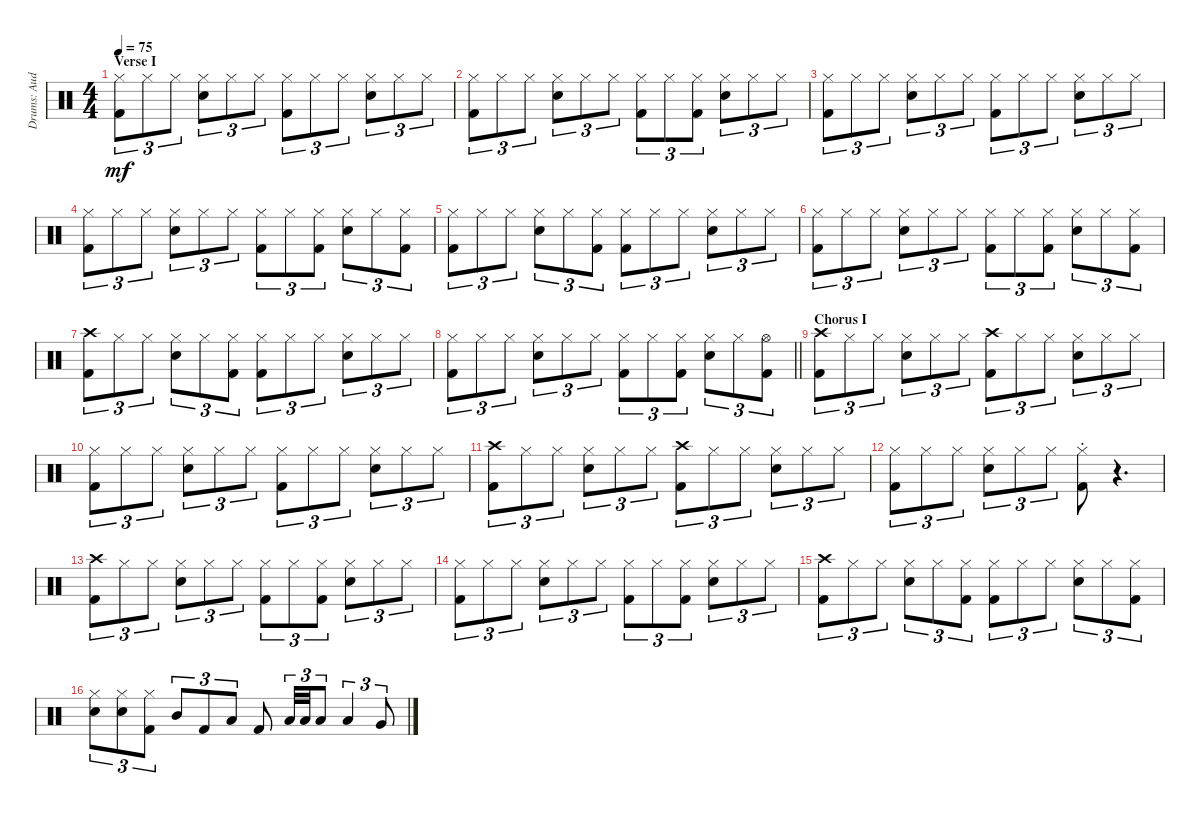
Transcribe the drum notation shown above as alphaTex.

\track ("Drums: Audie" "Drums: Aud") {instrument percussion}
\staff {score}
\articulation defaults
\ts (4 4)
\section ("" "Verse I")
\tempo 75
\clef neutral
\ks c
("Hi-Hat (closed)"{t} "Kick (hit) 2").8{tu (3 2) dy mf} "Hi-Hat (closed)".8{tu (3 2)} "Hi-Hat (closed)".8{tu (3 2)} ("Hi-Hat (closed)" "Electric Snare (hit)").8{tu (3 2)} "Hi-Hat (closed)".8{tu (3 2)} "Hi-Hat (closed)".8{tu (3 2)} ("Hi-Hat (closed)" "Kick (hit) 2").8{tu (3 2)} "Hi-Hat (closed)".8{tu (3 2)} "Hi-Hat (closed)".8{tu (3 2)} ("Hi-Hat (closed)" "Electric Snare (hit)").8{tu (3 2)} "Hi-Hat (closed)".8{tu (3 2)} "Hi-Hat (closed)".8{tu (3 2)} |
("Hi-Hat (closed)" "Kick (hit) 2").8{tu (3 2)} "Hi-Hat (closed)".8{tu (3 2)} "Hi-Hat (closed)".8{tu (3 2)} ("Hi-Hat (closed)" "Electric Snare (hit)").8{tu (3 2)} "Hi-Hat (closed)".8{tu (3 2)} "Hi-Hat (closed)".8{tu (3 2)} ("Hi-Hat (closed)" "Kick (hit) 2").8{tu (3 2)} "Hi-Hat (closed)".8{tu (3 2)} ("Hi-Hat (closed)" "Kick (hit) 2").8{tu (3 2)} ("Hi-Hat (closed)" "Electric Snare (hit)").8{tu (3 2)} "Hi-Hat (closed)".8{tu (3 2)} "Hi-Hat (closed)".8{tu (3 2)} |
("Hi-Hat (closed)" "Kick (hit) 2").8{tu (3 2)} "Hi-Hat (closed)".8{tu (3 2)} "Hi-Hat (closed)".8{tu (3 2)} ("Hi-Hat (closed)" "Electric Snare (hit)").8{tu (3 2)} "Hi-Hat (closed)".8{tu (3 2)} "Hi-Hat (closed)".8{tu (3 2)} ("Hi-Hat (closed)" "Kick (hit) 2").8{tu (3 2)} "Hi-Hat (closed)".8{tu (3 2)} "Hi-Hat (closed)".8{tu (3 2)} ("Hi-Hat (closed)" "Electric Snare (hit)").8{tu (3 2)} "Hi-Hat (closed)".8{tu (3 2)} "Hi-Hat (closed)".8{tu (3 2)} |
("Hi-Hat (closed)" "Kick (hit) 2").8{tu (3 2)} "Hi-Hat (closed)".8{tu (3 2)} "Hi-Hat (closed)".8{tu (3 2)} ("Hi-Hat (closed)" "Electric Snare (hit)").8{tu (3 2)} "Hi-Hat (closed)".8{tu (3 2)} "Hi-Hat (closed)".8{tu (3 2)} ("Hi-Hat (closed)" "Kick (hit) 2").8{tu (3 2)} "Hi-Hat (closed)".8{tu (3 2)} ("Hi-Hat (closed)" "Kick (hit) 2").8{tu (3 2)} ("Hi-Hat (closed)" "Electric Snare (hit)").8{tu (3 2)} "Hi-Hat (closed)".8{tu (3 2)} ("Hi-Hat (closed)" "Kick (hit) 2").8{tu (3 2)} |
("Hi-Hat (closed)" "Kick (hit) 2").8{tu (3 2)} "Hi-Hat (closed)".8{tu (3 2)} "Hi-Hat (closed)".8{tu (3 2)} ("Hi-Hat (closed)" "Electric Snare (hit)").8{tu (3 2)} "Hi-Hat (closed)".8{tu (3 2)} ("Hi-Hat (closed)" "Kick (hit) 2").8{tu (3 2)} ("Hi-Hat (closed)" "Kick (hit) 2").8{tu (3 2)} "Hi-Hat (closed)".8{tu (3 2)} "Hi-Hat (closed)".8{tu (3 2)} ("Hi-Hat (closed)" "Electric Snare (hit)").8{tu (3 2)} "Hi-Hat (closed)".8{tu (3 2)} "Hi-Hat (closed)".8{tu (3 2)} |
("Hi-Hat (closed)" "Kick (hit) 2").8{tu (3 2)} "Hi-Hat (closed)".8{tu (3 2)} "Hi-Hat (closed)".8{tu (3 2)} ("Hi-Hat (closed)" "Electric Snare (hit)").8{tu (3 2)} "Hi-Hat (closed)".8{tu (3 2)} "Hi-Hat (closed)".8{tu (3 2)} ("Hi-Hat (closed)" "Kick (hit) 2").8{tu (3 2)} "Hi-Hat (closed)".8{tu (3 2)} ("Hi-Hat (closed)" "Kick (hit) 2").8{tu (3 2)} ("Hi-Hat (closed)" "Electric Snare (hit)").8{tu (3 2)} "Hi-Hat (closed)".8{tu (3 2)} ("Hi-Hat (closed)" "Kick (hit) 2").8{tu (3 2)} |
("Crash high (hit)" "Kick (hit) 2").8{tu (3 2)} "Hi-Hat (closed)".8{tu (3 2)} "Hi-Hat (closed)".8{tu (3 2)} ("Hi-Hat (closed)" "Electric Snare (hit)").8{tu (3 2)} "Hi-Hat (closed)".8{tu (3 2)} ("Hi-Hat (closed)" "Kick (hit) 2").8{tu (3 2)} ("Hi-Hat (closed)" "Kick (hit) 2").8{tu (3 2)} "Hi-Hat (closed)".8{tu (3 2)} "Hi-Hat (closed)".8{tu (3 2)} ("Hi-Hat (closed)" "Electric Snare (hit)").8{tu (3 2)} "Hi-Hat (closed)".8{tu (3 2)} "Hi-Hat (closed)".8{tu (3 2)} |
\barLineRight lightlight
("Hi-Hat (closed)" "Kick (hit) 2").8{tu (3 2)} "Hi-Hat (closed)".8{tu (3 2)} "Hi-Hat (closed)".8{tu (3 2)} ("Hi-Hat (closed)" "Electric Snare (hit)").8{tu (3 2)} "Hi-Hat (closed)".8{tu (3 2)} "Hi-Hat (closed)".8{tu (3 2)} ("Hi-Hat (closed)" "Kick (hit) 2").8{tu (3 2)} "Hi-Hat (closed)".8{tu (3 2)} ("Hi-Hat (closed)" "Kick (hit) 2").8{tu (3 2)} ("Hi-Hat (closed)" "Electric Snare (hit)").8{tu (3 2)} "Hi-Hat (closed)".8{tu (3 2)} ("Hi-Hat (open)" "Kick (hit) 2").8{tu (3 2)} |
\section ("" "Chorus I")
("Crash high (hit)" "Kick (hit) 2").8{tu (3 2)} "Hi-Hat (closed)".8{tu (3 2)} "Hi-Hat (closed)".8{tu (3 2)} ("Hi-Hat (closed)" "Electric Snare (hit)").8{tu (3 2)} "Hi-Hat (closed)".8{tu (3 2)} "Hi-Hat (closed)".8{tu (3 2)} ("Crash high (hit)" "Kick (hit) 2").8{tu (3 2)} "Hi-Hat (closed)".8{tu (3 2)} "Hi-Hat (closed)".8{tu (3 2)} ("Hi-Hat (closed)" "Electric Snare (hit)").8{tu (3 2)} "Hi-Hat (closed)".8{tu (3 2)} "Hi-Hat (closed)".8{tu (3 2)} |
("Hi-Hat (closed)" "Kick (hit) 2").8{tu (3 2)} "Hi-Hat (closed)".8{tu (3 2)} "Hi-Hat (closed)".8{tu (3 2)} ("Hi-Hat (closed)" "Electric Snare (hit)").8{tu (3 2)} "Hi-Hat (closed)".8{tu (3 2)} "Hi-Hat (closed)".8{tu (3 2)} ("Hi-Hat (closed)" "Kick (hit) 2").8{tu (3 2)} "Hi-Hat (closed)".8{tu (3 2)} "Hi-Hat (closed)".8{tu (3 2)} ("Hi-Hat (closed)" "Electric Snare (hit)").8{tu (3 2)} "Hi-Hat (closed)".8{tu (3 2)} "Hi-Hat (closed)".8{tu (3 2)} |
("Crash high (hit)" "Kick (hit) 2").8{tu (3 2)} "Hi-Hat (closed)".8{tu (3 2)} "Hi-Hat (closed)".8{tu (3 2)} ("Hi-Hat (closed)" "Electric Snare (hit)").8{tu (3 2)} "Hi-Hat (closed)".8{tu (3 2)} "Hi-Hat (closed)".8{tu (3 2)} ("Crash high (hit)" "Kick (hit) 2").8{tu (3 2)} "Hi-Hat (closed)".8{tu (3 2)} "Hi-Hat (closed)".8{tu (3 2)} ("Hi-Hat (closed)" "Electric Snare (hit)").8{tu (3 2)} "Hi-Hat (closed)".8{tu (3 2)} "Hi-Hat (closed)".8{tu (3 2)} |
("Hi-Hat (closed)" "Kick (hit) 2").8{tu (3 2)} "Hi-Hat (closed)".8{tu (3 2)} "Hi-Hat (closed)".8{tu (3 2)} ("Hi-Hat (closed)" "Electric Snare (hit)").8{tu (3 2)} "Hi-Hat (closed)".8{tu (3 2)} "Hi-Hat (closed)".8{tu (3 2)} ("Hi-Hat (closed)"{st} "Kick (hit) 2"{st}).8 r.4{d} |
("Crash high (hit)" "Kick (hit) 2").8{tu (3 2)} "Hi-Hat (closed)".8{tu (3 2)} "Hi-Hat (closed)".8{tu (3 2)} ("Hi-Hat (closed)" "Electric Snare (hit)").8{tu (3 2)} "Hi-Hat (closed)".8{tu (3 2)} "Hi-Hat (closed)".8{tu (3 2)} ("Hi-Hat (closed)" "Kick (hit) 2").8{tu (3 2)} "Hi-Hat (closed)".8{tu (3 2)} ("Hi-Hat (closed)" "Kick (hit) 2").8{tu (3 2)} ("Hi-Hat (closed)" "Electric Snare (hit)").8{tu (3 2)} "Hi-Hat (closed)".8{tu (3 2)} "Hi-Hat (closed)".8{tu (3 2)} |
("Hi-Hat (closed)" "Kick (hit) 2").8{tu (3 2)} "Hi-Hat (closed)".8{tu (3 2)} "Hi-Hat (closed)".8{tu (3 2)} ("Hi-Hat (closed)" "Electric Snare (hit)").8{tu (3 2)} "Hi-Hat (closed)".8{tu (3 2)} "Hi-Hat (closed)".8{tu (3 2)} ("Hi-Hat (closed)" "Kick (hit) 2").8{tu (3 2)} "Hi-Hat (closed)".8{tu (3 2)} ("Hi-Hat (closed)" "Kick (hit) 2").8{tu (3 2)} ("Hi-Hat (closed)" "Electric Snare (hit)").8{tu (3 2)} "Hi-Hat (closed)".8{tu (3 2)} "Hi-Hat (closed)".8{tu (3 2)} |
("Crash high (hit)" "Kick (hit) 2").8{tu (3 2)} "Hi-Hat (closed)".8{tu (3 2)} "Hi-Hat (closed)".8{tu (3 2)} ("Hi-Hat (closed)" "Electric Snare (hit)").8{tu (3 2)} "Hi-Hat (closed)".8{tu (3 2)} ("Hi-Hat (closed)" "Kick (hit) 2").8{tu (3 2)} ("Hi-Hat (closed)" "Kick (hit) 2").8{tu (3 2)} "Hi-Hat (closed)".8{tu (3 2)} "Hi-Hat (closed)".8{tu (3 2)} ("Hi-Hat (closed)" "Electric Snare (hit)").8{tu (3 2)} "Hi-Hat (closed)".8{tu (3 2)} ("Hi-Hat (closed)" "Kick (hit) 2").8{tu (3 2)} |
("Hi-Hat (closed)" "Electric Snare (hit)").8{tu (3 2)} ("Hi-Hat (closed)" "Electric Snare (hit)").8{tu (3 2)} ("Hi-Hat (closed)" "Kick (hit) 2").8{tu (3 2)} "Mid Tom (hit)".8{tu (3 2)} "Kick (hit) 2".8{tu (3 2)} "Low Tom (hit)".8{tu (3 2)} "Kick (hit) 2".8 "Low Tom (hit)".32{tu (3 2)} "Low Tom (hit)".32{tu (3 2)} "Low Tom (hit)".8{tu (3 2)} "Low Tom (hit)".4{tu (3 2)} "Very Low Tom (hit)".8{tu (3 2)}
